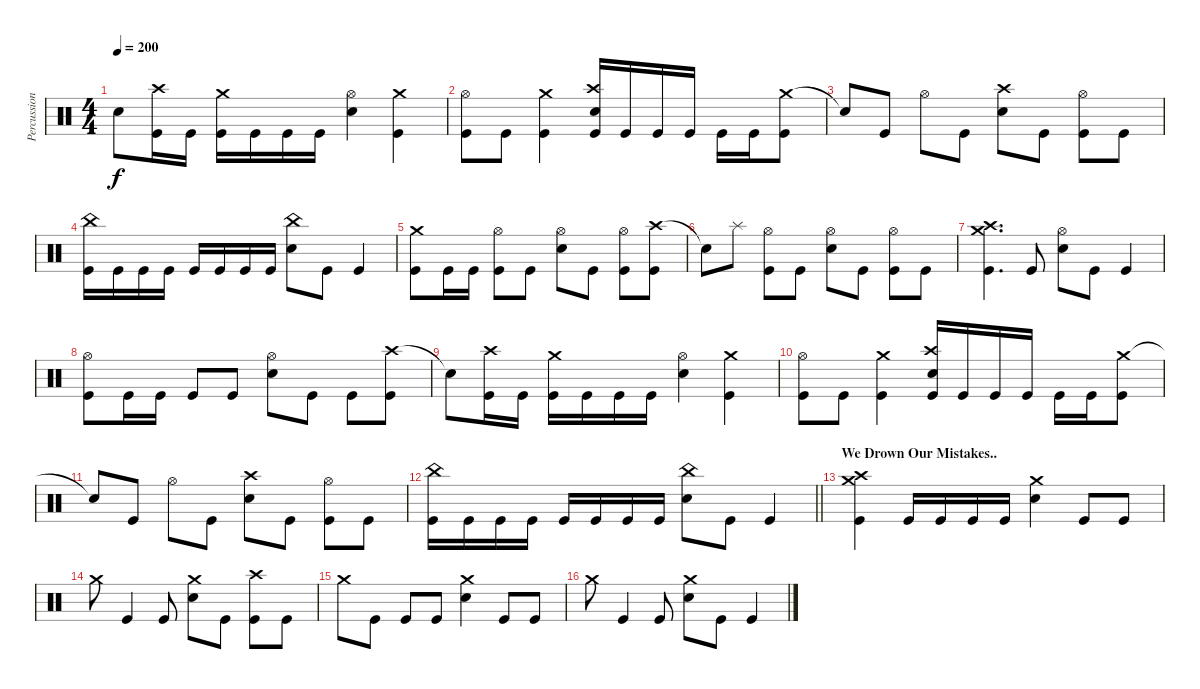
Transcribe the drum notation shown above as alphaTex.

\track ("Percussion" "Percussion") {instrument percussion}
\staff {score}
\articulation defaults
\ts (4 4)
\tempo 200
\clef neutral
\ks c "Snare (hit)"{t}.8{dy f}
("Crash high (hit)" "Kick (hit)").16 "Kick (hit)".16 ("Crash medium (hit)" "Kick (hit)").16 "Kick (hit)".16 "Kick (hit)".16 "Kick (hit)".16 ("Hi-Hat (open)" "Snare (hit) 2").4 ("Crash medium (hit)" "Kick (hit)").4 |
("Hi-Hat (open)" "Kick (hit)").8 "Kick (hit)".8 ("Crash medium (hit)" "Kick (hit)").4 ("Crash high (hit)" "Snare (hit) 2" "Kick (hit)").16 "Kick (hit)".16 "Kick (hit)".16 "Kick (hit)".16 "Kick (hit)".16 "Kick (hit)".16 ("Crash medium (hit)" "Kick (hit)").8 |
"Snare (hit)"{t}.8 "Kick (hit)".8 "Hi-Hat (open)".8 "Kick (hit)".8 ("Crash high (hit)" "Snare (hit) 2").8 "Kick (hit)".8 ("Hi-Hat (open)" "Kick (hit)").8 "Kick (hit)".8 |
("China (hit)" "Kick (hit)").16 "Kick (hit)".16 "Kick (hit)".16 "Kick (hit)".16 "Kick (hit)".16 "Kick (hit)".16 "Kick (hit)".16 "Kick (hit)".16 ("China (hit)" "Snare (hit) 2").8 "Kick (hit)".8 "Kick (hit)".4 |
("Crash medium (hit)" "Kick (hit)").8 "Kick (hit)".16 "Kick (hit)".16 ("Hi-Hat (open)" "Kick (hit)").8 "Kick (hit)".8 ("Hi-Hat (open)" "Snare (hit) 2").8 "Kick (hit)".8 ("Hi-Hat (open)" "Kick (hit)").8 ("Crash high (hit)" "Kick (hit)").8 |
"Snare (hit)"{t}.8 "Splash (hit)".8 ("Hi-Hat (open)" "Kick (hit)").8 "Kick (hit)".8 ("Hi-Hat (open)" "Snare (hit) 2").8 "Kick (hit)".8 ("Hi-Hat (open)" "Kick (hit)").8 "Kick (hit)".8 |
("Crash medium (hit)" "Crash high (hit)" "Kick (hit)").4{d} "Kick (hit)".8 ("Hi-Hat (open)" "Snare (hit) 2").8 "Kick (hit)".8 "Kick (hit)".4 |
("Hi-Hat (open)" "Kick (hit)").8 "Kick (hit)".16 "Kick (hit)".16 "Kick (hit)".8 "Kick (hit)".8 ("Hi-Hat (open)" "Snare (hit) 2").8 "Kick (hit)".8 "Kick (hit)".8 ("Crash high (hit)" "Kick (hit)").8 |
"Snare (hit)"{t}.8 ("Crash high (hit)" "Kick (hit)").16 "Kick (hit)".16 ("Crash medium (hit)" "Kick (hit)").16 "Kick (hit)".16 "Kick (hit)".16 "Kick (hit)".16 ("Hi-Hat (open)" "Snare (hit) 2").4 ("Crash medium (hit)" "Kick (hit)").4 |
("Hi-Hat (open)" "Kick (hit)").8 "Kick (hit)".8 ("Crash medium (hit)" "Kick (hit)").4 ("Crash high (hit)" "Snare (hit) 2" "Kick (hit)").16 "Kick (hit)".16 "Kick (hit)".16 "Kick (hit)".16 "Kick (hit)".16 "Kick (hit)".16 ("Crash medium (hit)" "Kick (hit)").8 |
"Snare (hit)"{t}.8 "Kick (hit)".8 "Hi-Hat (open)".8 "Kick (hit)".8 ("Crash high (hit)" "Snare (hit) 2").8 "Kick (hit)".8 ("Hi-Hat (open)" "Kick (hit)").8 "Kick (hit)".8 |
\barLineRight lightlight
("China (hit)" "Kick (hit)").16 "Kick (hit)".16 "Kick (hit)".16 "Kick (hit)".16 "Kick (hit)".16 "Kick (hit)".16 "Kick (hit)".16 "Kick (hit)".16 ("China (hit)" "Snare (hit) 2").8 "Kick (hit)".8 "Kick (hit)".4 |
\section ("" "We Drown Our Mistakes..")
("Crash medium (hit)" "Crash high (hit)" "Kick (hit)").4 "Kick (hit)".16 "Kick (hit)".16 "Kick (hit)".16 "Kick (hit)".16 ("Crash medium (hit)" "Snare (hit) 2").4 "Kick (hit)".8 "Kick (hit)".8 |
"Crash medium (hit)".8 "Kick (hit)".4 "Kick (hit)".8 ("Crash medium (hit)" "Snare (hit) 2").8 "Kick (hit)".8 ("Crash high (hit)" "Kick (hit)").8 "Kick (hit)".8 |
"Crash medium (hit)".8 "Kick (hit)".8 "Kick (hit)".8 "Kick (hit)".8 ("Crash medium (hit)" "Snare (hit) 2").4 "Kick (hit)".8 "Kick (hit)".8 |
"Crash medium (hit)".8 "Kick (hit)".4 "Kick (hit)".8 ("Crash medium (hit)" "Snare (hit) 2").8 "Kick (hit)".8 "Kick (hit)".4
